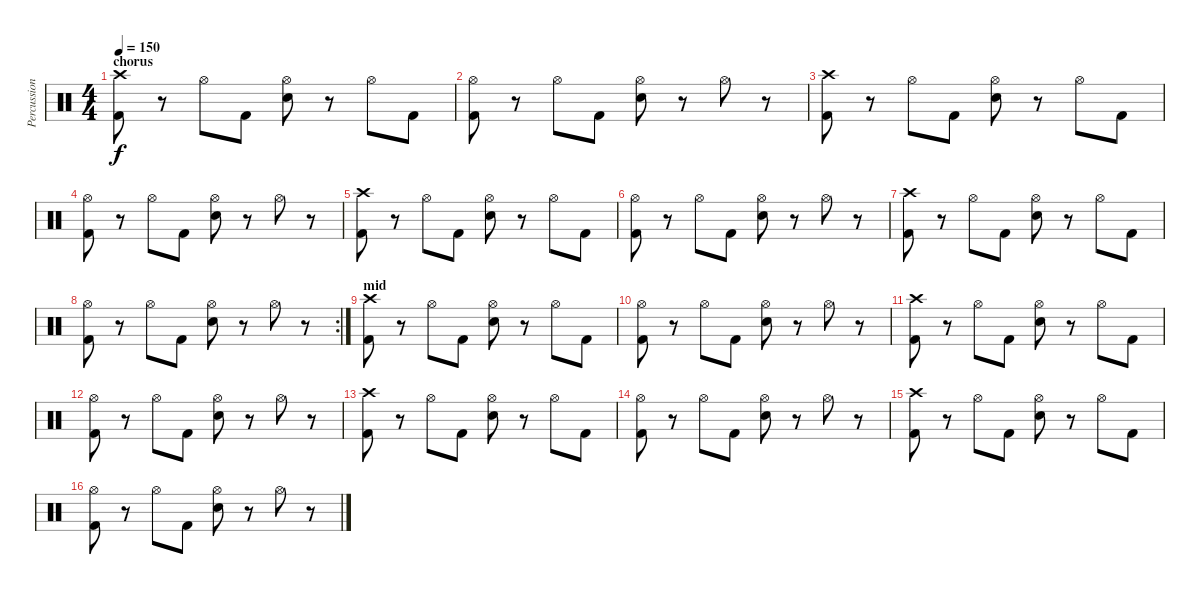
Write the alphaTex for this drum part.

\track ("Percussion" "Percussion") {instrument percussion}
\staff {score}
\articulation defaults
\ts (4 4)
\section ("" "chorus")
\tempo 150
\clef neutral
\ks c
("Crash high (hit)" "Kick (hit) 2").8{dy f} r.8 "Hi-Hat (open)".8 "Kick (hit) 2".8 ("Hi-Hat (open)" "Electric Snare (hit)").8 r.8 "Hi-Hat (open)".8 "Kick (hit) 2".8 |
("Hi-Hat (open)" "Kick (hit) 2").8 r.8 "Hi-Hat (open)".8 "Kick (hit) 2".8 ("Hi-Hat (open)" "Electric Snare (hit)").8 r.8 "Hi-Hat (open)".8 r.8 |
("Crash high (hit)" "Kick (hit) 2").8 r.8 "Hi-Hat (open)".8 "Kick (hit) 2".8 ("Hi-Hat (open)" "Electric Snare (hit)").8 r.8 "Hi-Hat (open)".8 "Kick (hit) 2".8 |
("Hi-Hat (open)" "Kick (hit) 2").8 r.8 "Hi-Hat (open)".8 "Kick (hit) 2".8 ("Hi-Hat (open)" "Electric Snare (hit)").8 r.8 "Hi-Hat (open)".8 r.8 |
("Crash high (hit)" "Kick (hit) 2").8 r.8 "Hi-Hat (open)".8 "Kick (hit) 2".8 ("Hi-Hat (open)" "Electric Snare (hit)").8 r.8 "Hi-Hat (open)".8 "Kick (hit) 2".8 |
("Hi-Hat (open)" "Kick (hit) 2").8 r.8 "Hi-Hat (open)".8 "Kick (hit) 2".8 ("Hi-Hat (open)" "Electric Snare (hit)").8 r.8 "Hi-Hat (open)".8 r.8 |
("Crash high (hit)" "Kick (hit) 2").8 r.8 "Hi-Hat (open)".8 "Kick (hit) 2".8 ("Hi-Hat (open)" "Electric Snare (hit)").8 r.8 "Hi-Hat (open)".8 "Kick (hit) 2".8 |
\rc 2
("Hi-Hat (open)" "Kick (hit) 2").8 r.8 "Hi-Hat (open)".8 "Kick (hit) 2".8 ("Hi-Hat (open)" "Electric Snare (hit)").8 r.8 "Hi-Hat (open)".8 r.8 |
\section ("" "mid")
("Crash high (hit)" "Kick (hit) 2").8 r.8 "Hi-Hat (open)".8 "Kick (hit) 2".8 ("Hi-Hat (open)" "Electric Snare (hit)").8 r.8 "Hi-Hat (open)".8 "Kick (hit) 2".8 |
("Hi-Hat (open)" "Kick (hit) 2").8 r.8 "Hi-Hat (open)".8 "Kick (hit) 2".8 ("Hi-Hat (open)" "Electric Snare (hit)").8 r.8 "Hi-Hat (open)".8 r.8 |
("Crash high (hit)" "Kick (hit) 2").8 r.8 "Hi-Hat (open)".8 "Kick (hit) 2".8 ("Hi-Hat (open)" "Electric Snare (hit)").8 r.8 "Hi-Hat (open)".8 "Kick (hit) 2".8 |
("Hi-Hat (open)" "Kick (hit) 2").8 r.8 "Hi-Hat (open)".8 "Kick (hit) 2".8 ("Hi-Hat (open)" "Electric Snare (hit)").8 r.8 "Hi-Hat (open)".8 r.8 |
("Crash high (hit)" "Kick (hit) 2").8 r.8 "Hi-Hat (open)".8 "Kick (hit) 2".8 ("Hi-Hat (open)" "Electric Snare (hit)").8 r.8 "Hi-Hat (open)".8 "Kick (hit) 2".8 |
("Hi-Hat (open)" "Kick (hit) 2").8 r.8 "Hi-Hat (open)".8 "Kick (hit) 2".8 ("Hi-Hat (open)" "Electric Snare (hit)").8 r.8 "Hi-Hat (open)".8 r.8 |
("Crash high (hit)" "Kick (hit) 2").8 r.8 "Hi-Hat (open)".8 "Kick (hit) 2".8 ("Hi-Hat (open)" "Electric Snare (hit)").8 r.8 "Hi-Hat (open)".8 "Kick (hit) 2".8 |
("Hi-Hat (open)" "Kick (hit) 2").8 r.8 "Hi-Hat (open)".8 "Kick (hit) 2".8 ("Hi-Hat (open)" "Electric Snare (hit)").8 r.8 "Hi-Hat (open)".8 r.8
